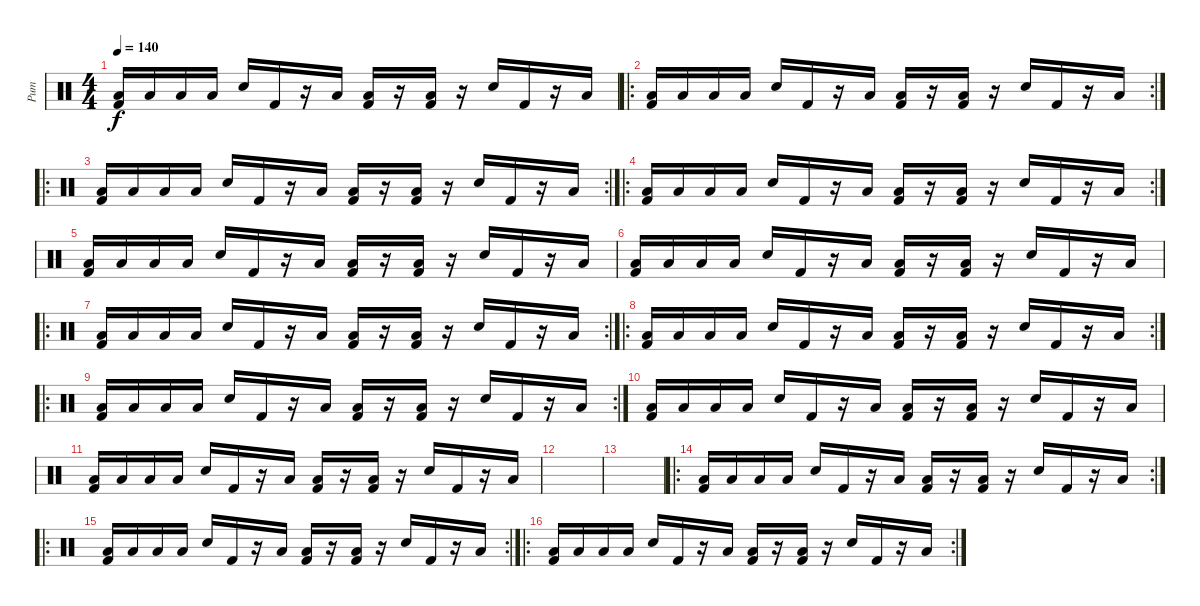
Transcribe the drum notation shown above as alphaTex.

\track ("Рит" "Рит") {instrument percussion}
\staff {score}
\articulation defaults
\ts (4 4)
\tempo 140
\clef neutral
\ks c
("Low Floor Tom (hit)" "Kick (hit) 2").16{dy f volume 16} "Low Floor Tom (hit)".16 "Low Floor Tom (hit)".16 "Low Floor Tom (hit)".16 "Snare (hit) 2".16 "Kick (hit) 2".16 r.16 "Low Tom (hit)".16 ("Low Floor Tom (hit)" "Kick (hit) 2").16 r.16 ("Low Floor Tom (hit)" "Kick (hit) 2").16 r.16 "Snare (hit) 2".16 "Kick (hit) 2".16 r.16 "Low Tom (hit)".16 |
\ro
\rc 2
("Low Floor Tom (hit)" "Kick (hit) 2").16{volume 16} "Low Floor Tom (hit)".16 "Low Floor Tom (hit)".16 "Low Floor Tom (hit)".16 "Snare (hit) 2".16 "Kick (hit) 2".16 r.16 "Low Tom (hit)".16 ("Low Floor Tom (hit)" "Kick (hit) 2").16 r.16 ("Low Floor Tom (hit)" "Kick (hit) 2").16 r.16 "Snare (hit) 2".16 "Kick (hit) 2".16 r.16 "Low Tom (hit)".16 |
\ro
\rc 2
("Low Floor Tom (hit)" "Kick (hit) 2").16{volume 16} "Low Floor Tom (hit)".16 "Low Floor Tom (hit)".16 "Low Floor Tom (hit)".16 "Snare (hit) 2".16 "Kick (hit) 2".16 r.16 "Low Tom (hit)".16 ("Low Floor Tom (hit)" "Kick (hit) 2").16 r.16 ("Low Floor Tom (hit)" "Kick (hit) 2").16 r.16 "Snare (hit) 2".16 "Kick (hit) 2".16 r.16 "Low Tom (hit)".16 |
\ro
\rc 2
("Low Floor Tom (hit)" "Kick (hit) 2").16{volume 16} "Low Floor Tom (hit)".16 "Low Floor Tom (hit)".16 "Low Floor Tom (hit)".16 "Snare (hit) 2".16 "Kick (hit) 2".16 r.16 "Low Tom (hit)".16 ("Low Floor Tom (hit)" "Kick (hit) 2").16 r.16 ("Low Floor Tom (hit)" "Kick (hit) 2").16 r.16 "Snare (hit) 2".16 "Kick (hit) 2".16 r.16 "Low Tom (hit)".16 |
("Low Floor Tom (hit)" "Kick (hit) 2").16{volume 16} "Low Floor Tom (hit)".16 "Low Floor Tom (hit)".16 "Low Floor Tom (hit)".16 "Snare (hit) 2".16 "Kick (hit) 2".16 r.16 "Low Tom (hit)".16 ("Low Floor Tom (hit)" "Kick (hit) 2").16 r.16 ("Low Floor Tom (hit)" "Kick (hit) 2").16 r.16 "Snare (hit) 2".16 "Kick (hit) 2".16 r.16 "Low Tom (hit)".16 |
("Low Floor Tom (hit)" "Kick (hit) 2").16{volume 16} "Low Floor Tom (hit)".16 "Low Floor Tom (hit)".16 "Low Floor Tom (hit)".16 "Snare (hit) 2".16 "Kick (hit) 2".16 r.16 "Low Tom (hit)".16 ("Low Floor Tom (hit)" "Kick (hit) 2").16 r.16 ("Low Floor Tom (hit)" "Kick (hit) 2").16 r.16 "Snare (hit) 2".16 "Kick (hit) 2".16 r.16 "Low Tom (hit)".16 |
\ro
\rc 2
("Low Floor Tom (hit)" "Kick (hit) 2").16{volume 16} "Low Floor Tom (hit)".16 "Low Floor Tom (hit)".16 "Low Floor Tom (hit)".16 "Snare (hit) 2".16 "Kick (hit) 2".16 r.16 "Low Tom (hit)".16 ("Low Floor Tom (hit)" "Kick (hit) 2").16 r.16 ("Low Floor Tom (hit)" "Kick (hit) 2").16 r.16 "Snare (hit) 2".16 "Kick (hit) 2".16 r.16 "Low Tom (hit)".16 |
\ro
\rc 2
("Low Floor Tom (hit)" "Kick (hit) 2").16{volume 16} "Low Floor Tom (hit)".16 "Low Floor Tom (hit)".16 "Low Floor Tom (hit)".16 "Snare (hit) 2".16 "Kick (hit) 2".16 r.16 "Low Tom (hit)".16 ("Low Floor Tom (hit)" "Kick (hit) 2").16 r.16 ("Low Floor Tom (hit)" "Kick (hit) 2").16 r.16 "Snare (hit) 2".16 "Kick (hit) 2".16 r.16 "Low Tom (hit)".16 |
\ro
\rc 2
("Low Floor Tom (hit)" "Kick (hit) 2").16{volume 16} "Low Floor Tom (hit)".16 "Low Floor Tom (hit)".16 "Low Floor Tom (hit)".16 "Snare (hit) 2".16 "Kick (hit) 2".16 r.16 "Low Tom (hit)".16 ("Low Floor Tom (hit)" "Kick (hit) 2").16 r.16 ("Low Floor Tom (hit)" "Kick (hit) 2").16 r.16 "Snare (hit) 2".16 "Kick (hit) 2".16 r.16 "Low Tom (hit)".16 |
("Low Floor Tom (hit)" "Kick (hit) 2").16{volume 16} "Low Floor Tom (hit)".16 "Low Floor Tom (hit)".16 "Low Floor Tom (hit)".16 "Snare (hit) 2".16 "Kick (hit) 2".16 r.16 "Low Tom (hit)".16 ("Low Floor Tom (hit)" "Kick (hit) 2").16 r.16 ("Low Floor Tom (hit)" "Kick (hit) 2").16 r.16 "Snare (hit) 2".16 "Kick (hit) 2".16 r.16 "Low Tom (hit)".16 |
("Low Floor Tom (hit)" "Kick (hit) 2").16 "Low Floor Tom (hit)".16 "Low Floor Tom (hit)".16 "Low Floor Tom (hit)".16 "Snare (hit) 2".16 "Kick (hit) 2".16 r.16 "Low Tom (hit)".16 ("Low Floor Tom (hit)" "Kick (hit) 2").16 r.16 ("Low Floor Tom (hit)" "Kick (hit) 2").16 r.16 "Snare (hit) 2".16 "Kick (hit) 2".16 r.16 "Low Tom (hit)".16 |
|
|
\ro
\rc 2
("Low Floor Tom (hit)" "Kick (hit) 2").16 "Low Floor Tom (hit)".16 "Low Floor Tom (hit)".16 "Low Floor Tom (hit)".16 "Snare (hit) 2".16 "Kick (hit) 2".16 r.16 "Low Tom (hit)".16 ("Low Floor Tom (hit)" "Kick (hit) 2").16 r.16 ("Low Floor Tom (hit)" "Kick (hit) 2").16 r.16 "Snare (hit) 2".16 "Kick (hit) 2".16 r.16 "Low Tom (hit)".16 |
\ro
\rc 2
("Low Floor Tom (hit)" "Kick (hit) 2").16 "Low Floor Tom (hit)".16 "Low Floor Tom (hit)".16 "Low Floor Tom (hit)".16 "Snare (hit) 2".16 "Kick (hit) 2".16 r.16 "Low Tom (hit)".16 ("Low Floor Tom (hit)" "Kick (hit) 2").16 r.16 ("Low Floor Tom (hit)" "Kick (hit) 2").16 r.16 "Snare (hit) 2".16 "Kick (hit) 2".16 r.16 "Low Tom (hit)".16 |
\ro
\rc 2
("Low Floor Tom (hit)" "Kick (hit) 2").16 "Low Floor Tom (hit)".16 "Low Floor Tom (hit)".16 "Low Floor Tom (hit)".16 "Snare (hit) 2".16 "Kick (hit) 2".16 r.16 "Low Tom (hit)".16 ("Low Floor Tom (hit)" "Kick (hit) 2").16 r.16 ("Low Floor Tom (hit)" "Kick (hit) 2").16 r.16 "Snare (hit) 2".16 "Kick (hit) 2".16 r.16 "Low Tom (hit)".16
